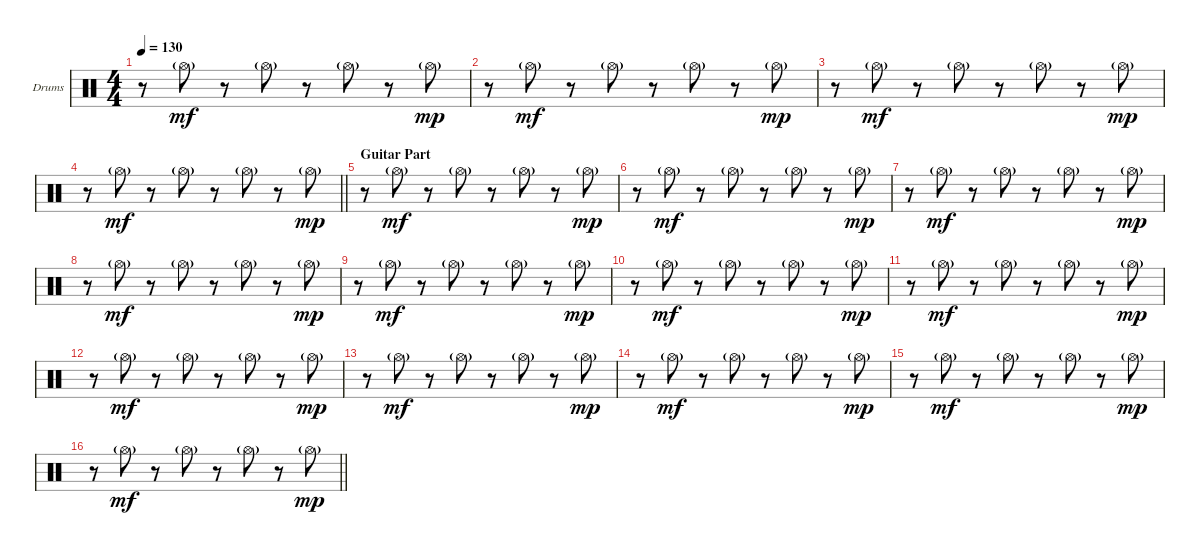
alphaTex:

\bracketExtendMode groupsimilarinstruments
\firstSystemTrackNameOrientation horizontal
\otherSystemsTrackNameOrientation horizontal
\track ("Drumkit" "Drums") {instrument percussion}
\staff {score}
\articulation defaults
\ts (4 4)
\tempo 130
\clef neutral
\ks c
r.8{dy mp} "Hi-Hat (open)"{g}.8{dy mf} r.8 "Hi-Hat (open)"{g}.8 r.8 "Hi-Hat (open)"{g}.8 r.8 "Hi-Hat (open)"{g}.8{dy mp} |
r.8 "Hi-Hat (open)"{g}.8{dy mf} r.8 "Hi-Hat (open)"{g}.8 r.8 "Hi-Hat (open)"{g}.8 r.8 "Hi-Hat (open)"{g}.8{dy mp} |
r.8 "Hi-Hat (open)"{g}.8{dy mf} r.8 "Hi-Hat (open)"{g}.8 r.8 "Hi-Hat (open)"{g}.8 r.8 "Hi-Hat (open)"{g}.8{dy mp} |
\barLineRight lightlight
r.8 "Hi-Hat (open)"{g}.8{dy mf} r.8 "Hi-Hat (open)"{g}.8 r.8 "Hi-Hat (open)"{g}.8 r.8 "Hi-Hat (open)"{g}.8{dy mp} |
\section ("" "Guitar Part")
r.8 "Hi-Hat (open)"{g}.8{dy mf} r.8 "Hi-Hat (open)"{g}.8 r.8 "Hi-Hat (open)"{g}.8 r.8 "Hi-Hat (open)"{g}.8{dy mp} |
r.8 "Hi-Hat (open)"{g}.8{dy mf} r.8 "Hi-Hat (open)"{g}.8 r.8 "Hi-Hat (open)"{g}.8 r.8 "Hi-Hat (open)"{g}.8{dy mp} |
r.8 "Hi-Hat (open)"{g}.8{dy mf} r.8 "Hi-Hat (open)"{g}.8 r.8 "Hi-Hat (open)"{g}.8 r.8 "Hi-Hat (open)"{g}.8{dy mp} |
r.8 "Hi-Hat (open)"{g}.8{dy mf} r.8 "Hi-Hat (open)"{g}.8 r.8 "Hi-Hat (open)"{g}.8 r.8 "Hi-Hat (open)"{g}.8{dy mp} |
r.8 "Hi-Hat (open)"{g}.8{dy mf} r.8 "Hi-Hat (open)"{g}.8 r.8 "Hi-Hat (open)"{g}.8 r.8 "Hi-Hat (open)"{g}.8{dy mp} |
r.8 "Hi-Hat (open)"{g}.8{dy mf} r.8 "Hi-Hat (open)"{g}.8 r.8 "Hi-Hat (open)"{g}.8 r.8 "Hi-Hat (open)"{g}.8{dy mp} |
r.8 "Hi-Hat (open)"{g}.8{dy mf} r.8 "Hi-Hat (open)"{g}.8 r.8 "Hi-Hat (open)"{g}.8 r.8 "Hi-Hat (open)"{g}.8{dy mp} |
r.8 "Hi-Hat (open)"{g}.8{dy mf} r.8 "Hi-Hat (open)"{g}.8 r.8 "Hi-Hat (open)"{g}.8 r.8 "Hi-Hat (open)"{g}.8{dy mp} |
r.8 "Hi-Hat (open)"{g}.8{dy mf} r.8 "Hi-Hat (open)"{g}.8 r.8 "Hi-Hat (open)"{g}.8 r.8 "Hi-Hat (open)"{g}.8{dy mp} |
r.8 "Hi-Hat (open)"{g}.8{dy mf} r.8 "Hi-Hat (open)"{g}.8 r.8 "Hi-Hat (open)"{g}.8 r.8 "Hi-Hat (open)"{g}.8{dy mp} |
r.8 "Hi-Hat (open)"{g}.8{dy mf} r.8 "Hi-Hat (open)"{g}.8 r.8 "Hi-Hat (open)"{g}.8 r.8 "Hi-Hat (open)"{g}.8{dy mp} |
\barLineRight lightlight
r.8 "Hi-Hat (open)"{g}.8{dy mf} r.8 "Hi-Hat (open)"{g}.8 r.8 "Hi-Hat (open)"{g}.8 r.8 "Hi-Hat (open)"{g}.8{dy mp}
